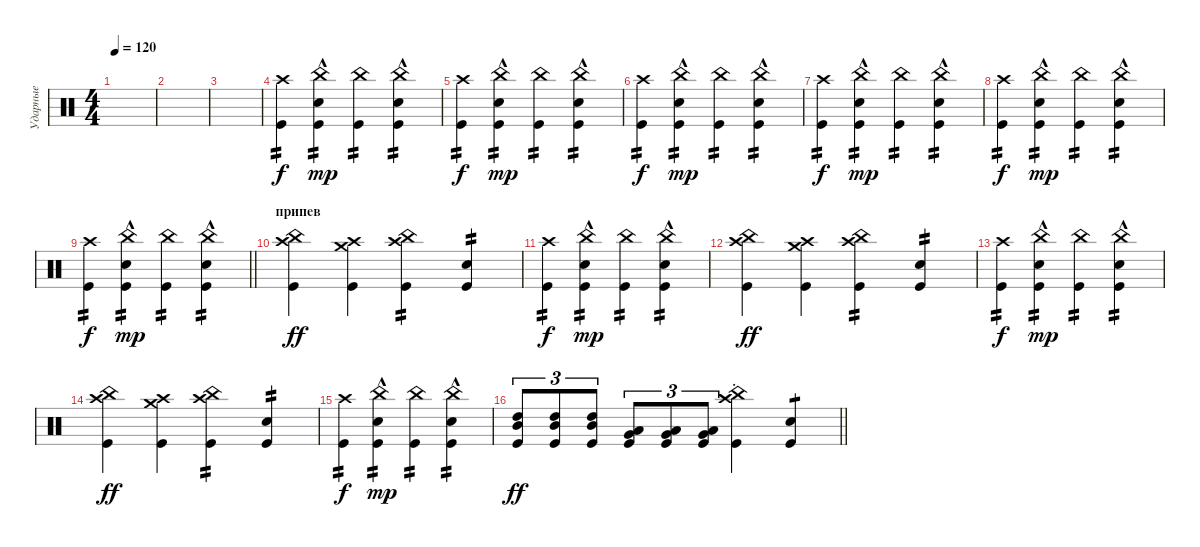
\track ("Ударные" "Ударные") {instrument percussion}
\staff {score}
\articulation defaults
\ts (4 4)
\tempo 120
\clef neutral
\ks c
|
|
|
("Kick (hit)" "Crash high (hit)").4{tp 2 dy f} ("Snare (hit) 2"{hac} "China (hit)" "Kick (hit)").4{tp 2 dy mp} ("China (hit)" "Kick (hit)").4{tp 2} ("Snare (hit) 2"{hac} "China (hit)" "Kick (hit)").4{tp 2} |
("Kick (hit)" "Crash high (hit)").4{tp 2 dy f} ("Snare (hit) 2"{hac} "China (hit)" "Kick (hit)").4{tp 2 dy mp} ("China (hit)" "Kick (hit)").4{tp 2} ("Snare (hit) 2"{hac} "China (hit)" "Kick (hit)").4{tp 2} |
("Kick (hit)" "Crash high (hit)").4{tp 2 dy f} ("Snare (hit) 2"{hac} "China (hit)" "Kick (hit)").4{tp 2 dy mp} ("China (hit)" "Kick (hit)").4{tp 2} ("Snare (hit) 2"{hac} "China (hit)" "Kick (hit)").4{tp 2} |
("Kick (hit)" "Crash high (hit)").4{tp 2 dy f} ("Snare (hit) 2"{hac} "China (hit)" "Kick (hit)").4{tp 2 dy mp} ("China (hit)" "Kick (hit)").4{tp 2} ("Snare (hit) 2"{hac} "China (hit)" "Kick (hit)").4{tp 2} |
("Kick (hit)" "Crash high (hit)").4{tp 2 dy f} ("Snare (hit) 2"{hac} "China (hit)" "Kick (hit)").4{tp 2 dy mp} ("China (hit)" "Kick (hit)").4{tp 2} ("Snare (hit) 2"{hac} "China (hit)" "Kick (hit)").4{tp 2} |
\barLineRight lightlight
("Kick (hit)" "Crash high (hit)").4{tp 2 dy f} ("Snare (hit) 2"{hac} "China (hit)" "Kick (hit)").4{tp 2 dy mp} ("China (hit)" "Kick (hit)").4{tp 2} ("Snare (hit) 2"{hac} "China (hit)" "Kick (hit)").4{tp 2} |
\section ("" "припев")
("Kick (hit)" "Crash high (hit)" "China (hit)").4{dy ff} ("Kick (hit)" "Crash high (hit)" "Crash medium (hit)").4 ("Kick (hit)" "Crash high (hit)" "China (hit)").4{tp 2} ("Kick (hit)" "Snare (hit) 2").4{tp 2} |
("Kick (hit)" "Crash high (hit)").4{tp 2 dy f} ("Snare (hit) 2"{hac} "China (hit)" "Kick (hit)").4{tp 2 dy mp} ("China (hit)" "Kick (hit)").4{tp 2} ("Snare (hit) 2"{hac} "China (hit)" "Kick (hit)").4{tp 2} |
("Kick (hit)" "Crash high (hit)" "China (hit)").4{dy ff} ("Kick (hit)" "Crash high (hit)" "Crash medium (hit)").4 ("Kick (hit)" "Crash high (hit)" "China (hit)").4{tp 2} ("Kick (hit)" "Snare (hit) 2").4{tp 2} |
("Kick (hit)" "Crash high (hit)").4{tp 2 dy f} ("Snare (hit) 2"{hac} "China (hit)" "Kick (hit)").4{tp 2 dy mp} ("China (hit)" "Kick (hit)").4{tp 2} ("Snare (hit) 2"{hac} "China (hit)" "Kick (hit)").4{tp 2} |
("Kick (hit)" "Crash high (hit)" "China (hit)").4{dy ff} ("Kick (hit)" "Crash high (hit)" "Crash medium (hit)").4 ("Kick (hit)" "Crash high (hit)" "China (hit)").4{tp 2} ("Kick (hit)" "Snare (hit) 2").4{tp 2} |
("Kick (hit)" "Crash high (hit)").4{tp 2 dy f} ("Snare (hit) 2"{hac} "China (hit)" "Kick (hit)").4{tp 2 dy mp} ("China (hit)" "Kick (hit)").4{tp 2} ("Snare (hit) 2"{hac} "China (hit)" "Kick (hit)").4{tp 2} |
\barLineRight lightlight
("High Tom (hit)" "Mid Tom (hit)" "Kick (hit)").8{tu (3 2) dy ff} ("High Tom (hit)" "Mid Tom (hit)" "Kick (hit)").8{tu (3 2)} ("Mid Tom (hit)" "High Tom (hit)" "Kick (hit)").8{tu (3 2)} ("Low Tom (hit)" "Very Low Tom (hit)" "Kick (hit)").8{tu (3 2)} ("Low Tom (hit)" "Very Low Tom (hit)" "Kick (hit)").8{tu (3 2)} ("Low Tom (hit)" "Very Low Tom (hit)" "Kick (hit)").8{tu (3 2)} ("Crash high (hit)"{st} "China (hit)"{st} "Kick (hit)"{st}).4 ("Kick (hit)" "Snare (hit) 2").4{tp 1}
